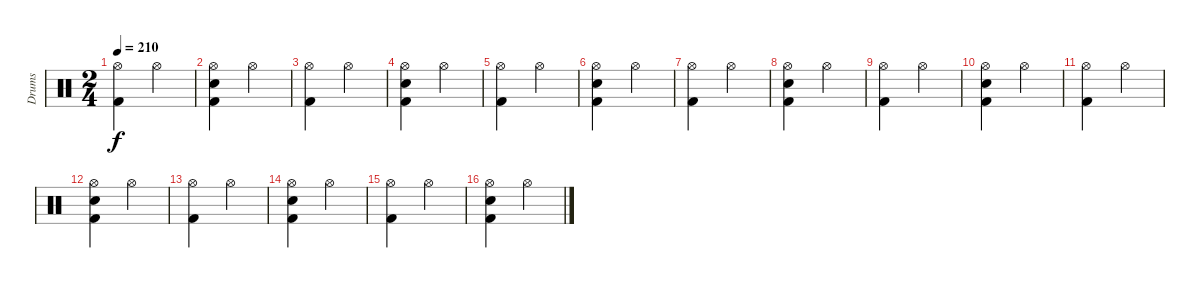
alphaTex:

\track ("Drums" "Drums") {instrument percussion}
\staff {score}
\articulation defaults
\ts (2 4)
\tempo 210
\clef neutral
\ks c
("Hi-Hat (open)" "Kick (hit) 2").4{dy f} "Hi-Hat (open)".4 |
("Hi-Hat (open)" "Electric Snare (hit)" "Kick (hit) 2").4 "Hi-Hat (open)".4 |
("Hi-Hat (open)" "Kick (hit) 2").4 "Hi-Hat (open)".4 |
("Hi-Hat (open)" "Electric Snare (hit)" "Kick (hit) 2").4 "Hi-Hat (open)".4 |
("Hi-Hat (open)" "Kick (hit) 2").4 "Hi-Hat (open)".4 |
("Hi-Hat (open)" "Electric Snare (hit)" "Kick (hit) 2").4 "Hi-Hat (open)".4 |
("Hi-Hat (open)" "Kick (hit) 2").4 "Hi-Hat (open)".4 |
("Hi-Hat (open)" "Electric Snare (hit)" "Kick (hit) 2").4 "Hi-Hat (open)".4 |
("Hi-Hat (open)" "Kick (hit) 2").4 "Hi-Hat (open)".4 |
("Hi-Hat (open)" "Electric Snare (hit)" "Kick (hit) 2").4 "Hi-Hat (open)".4 |
("Hi-Hat (open)" "Kick (hit) 2").4 "Hi-Hat (open)".4 |
("Hi-Hat (open)" "Electric Snare (hit)" "Kick (hit) 2").4 "Hi-Hat (open)".4 |
("Hi-Hat (open)" "Kick (hit) 2").4 "Hi-Hat (open)".4 |
("Hi-Hat (open)" "Electric Snare (hit)" "Kick (hit) 2").4 "Hi-Hat (open)".4 |
("Hi-Hat (open)" "Kick (hit) 2").4 "Hi-Hat (open)".4 |
("Hi-Hat (open)" "Electric Snare (hit)" "Kick (hit) 2").4 "Hi-Hat (open)".4
